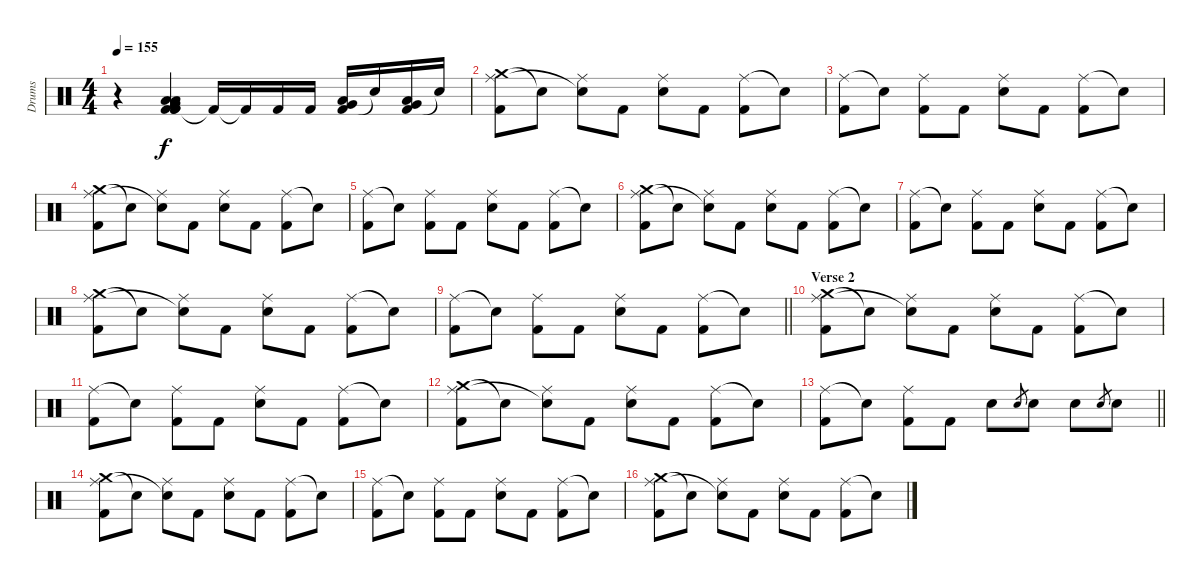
\track ("Drums" "Drums") {instrument percussion}
\staff {score}
\articulation defaults
\ts (4 4)
\tempo 155
\clef neutral
\ks c
r.4{dy f} ("Kick (hit) 2" "Kick (hit) 2" "Kick (hit) 2" "Low Tom (hit)" "Very Low Tom (hit)" "Low Floor Tom (hit)").4 "Kick (hit) 2"{t}.16 "Kick (hit) 2"{t}.16 "Kick (hit) 2".16 "Kick (hit) 2".16 ("Kick (hit) 2" "Low Tom (hit)" "Very Low Tom (hit)").16 "Snare (hit)"{t}.16 ("Kick (hit) 2" "Low Tom (hit)" "Very Low Tom (hit)").16 "Snare (hit)"{t}.16 |
("Crash medium (hit)" "Ride (middle)" "Kick (hit) 2").8 "Snare (hit)"{t}.8 ("Ride (middle)" "Snare (hit)"{t}).8 "Kick (hit) 2".8 ("Ride (middle)" "Electric Snare (hit)").8 "Kick (hit) 2".8 ("Ride (middle)" "Kick (hit) 2").8 "Snare (hit)"{t}.8 |
("Ride (middle)" "Kick (hit) 2").8 "Snare (hit)"{t}.8 ("Ride (middle)" "Kick (hit) 2").8 "Kick (hit) 2".8 ("Ride (middle)" "Electric Snare (hit)").8 "Kick (hit) 2".8 ("Ride (middle)" "Kick (hit) 2").8 "Snare (hit)"{t}.8 |
("Crash medium (hit)" "Ride (middle)" "Kick (hit) 2").8 "Snare (hit)"{t}.8 ("Ride (middle)" "Snare (hit)"{t}).8 "Kick (hit) 2".8 ("Ride (middle)" "Electric Snare (hit)").8 "Kick (hit) 2".8 ("Ride (middle)" "Kick (hit) 2").8 "Snare (hit)"{t}.8 |
("Ride (middle)" "Kick (hit) 2").8 "Snare (hit)"{t}.8 ("Ride (middle)" "Kick (hit) 2").8 "Kick (hit) 2".8 ("Ride (middle)" "Electric Snare (hit)").8 "Kick (hit) 2".8 ("Ride (middle)" "Kick (hit) 2").8 "Snare (hit)"{t}.8 |
("Crash medium (hit)" "Ride (middle)" "Kick (hit) 2").8 "Snare (hit)"{t}.8 ("Ride (middle)" "Snare (hit)"{t}).8 "Kick (hit) 2".8 ("Ride (middle)" "Electric Snare (hit)").8 "Kick (hit) 2".8 ("Ride (middle)" "Kick (hit) 2").8 "Snare (hit)"{t}.8 |
("Ride (middle)" "Kick (hit) 2").8 "Snare (hit)"{t}.8 ("Ride (middle)" "Kick (hit) 2").8 "Kick (hit) 2".8 ("Ride (middle)" "Electric Snare (hit)").8 "Kick (hit) 2".8 ("Ride (middle)" "Kick (hit) 2").8 "Snare (hit)"{t}.8 |
("Crash medium (hit)" "Ride (middle)" "Kick (hit) 2").8 "Snare (hit)"{t}.8 ("Ride (middle)" "Snare (hit)"{t}).8 "Kick (hit) 2".8 ("Ride (middle)" "Electric Snare (hit)").8 "Kick (hit) 2".8 ("Ride (middle)" "Kick (hit) 2").8 "Snare (hit)"{t}.8 |
\barLineRight lightlight
("Ride (middle)" "Kick (hit) 2").8 "Snare (hit)"{t}.8 ("Ride (middle)" "Kick (hit) 2").8 "Kick (hit) 2".8 ("Ride (middle)" "Electric Snare (hit)").8 "Kick (hit) 2".8 ("Ride (middle)" "Kick (hit) 2").8 "Snare (hit)"{t}.8 |
\section ("" "Verse 2")
("Crash medium (hit)" "Ride (middle)" "Kick (hit) 2").8 "Snare (hit)"{t}.8 ("Ride (middle)" "Snare (hit)"{t}).8 "Kick (hit) 2".8 ("Ride (middle)" "Electric Snare (hit)").8 "Kick (hit) 2".8 ("Ride (middle)" "Kick (hit) 2").8 "Snare (hit)"{t}.8 |
("Ride (middle)" "Kick (hit) 2").8 "Snare (hit)"{t}.8 ("Ride (middle)" "Kick (hit) 2").8 "Kick (hit) 2".8 ("Ride (middle)" "Electric Snare (hit)").8 "Kick (hit) 2".8 ("Ride (middle)" "Kick (hit) 2").8 "Snare (hit)"{t}.8 |
("Crash medium (hit)" "Ride (middle)" "Kick (hit) 2").8 "Snare (hit)"{t}.8 ("Ride (middle)" "Snare (hit)"{t}).8 "Kick (hit) 2".8 ("Ride (middle)" "Electric Snare (hit)").8 "Kick (hit) 2".8 ("Ride (middle)" "Kick (hit) 2").8 "Snare (hit)"{t}.8 |
\barLineRight lightlight
("Ride (middle)" "Kick (hit) 2").8 "Snare (hit)"{t}.8 ("Ride (middle)" "Kick (hit) 2").8 "Kick (hit) 2".8 "Electric Snare (hit)".8 "Electric Snare (hit)".8{gr} "Electric Snare (hit)".8 "Electric Snare (hit)".8 "Electric Snare (hit)".8{gr} "Electric Snare (hit)".8 |
("Crash medium (hit)" "Ride (middle)" "Kick (hit) 2").8 "Snare (hit)"{t}.8 ("Ride (middle)" "Snare (hit)"{t}).8 "Kick (hit) 2".8 ("Ride (middle)" "Electric Snare (hit)").8 "Kick (hit) 2".8 ("Ride (middle)" "Kick (hit) 2").8 "Snare (hit)"{t}.8 |
("Ride (middle)" "Kick (hit) 2").8 "Snare (hit)"{t}.8 ("Ride (middle)" "Kick (hit) 2").8 "Kick (hit) 2".8 ("Ride (middle)" "Electric Snare (hit)").8 "Kick (hit) 2".8 ("Ride (middle)" "Kick (hit) 2").8 "Snare (hit)"{t}.8 |
("Crash medium (hit)" "Ride (middle)" "Kick (hit) 2").8 "Snare (hit)"{t}.8 ("Ride (middle)" "Snare (hit)"{t}).8 "Kick (hit) 2".8 ("Ride (middle)" "Electric Snare (hit)").8 "Kick (hit) 2".8 ("Ride (middle)" "Kick (hit) 2").8 "Snare (hit)"{t}.8
